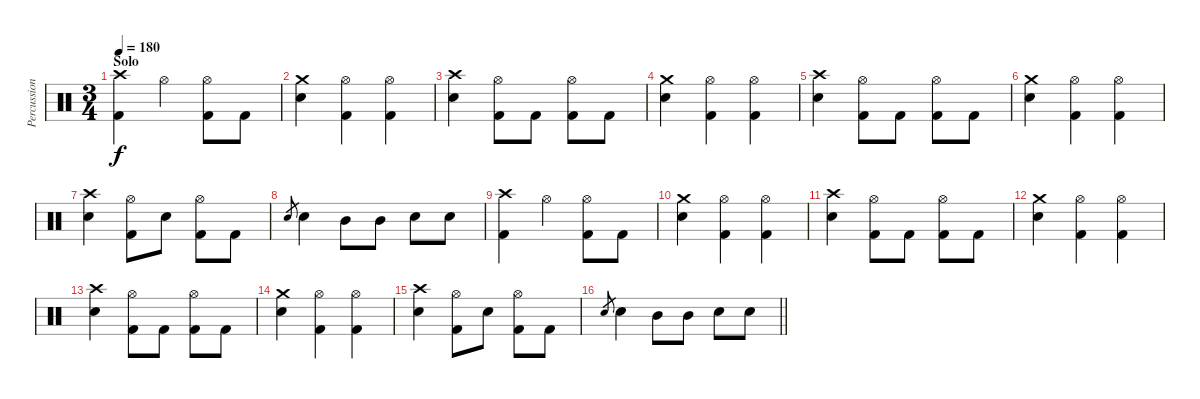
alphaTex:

\track ("Percussions" "Percussion") {instrument percussion}
\staff {score}
\articulation defaults
\ts (3 4)
\section ("" "Solo")
\tempo 180
\clef neutral
\ks c
("Crash high (hit)" "Kick (hit) 2").4{dy f} "Hi-Hat (open)".4 ("Hi-Hat (open)" "Kick (hit) 2").8 "Kick (hit) 2".8 |
("Crash medium (hit)" "Snare (hit) 2").4 ("Hi-Hat (open)" "Kick (hit) 2").4 ("Hi-Hat (open)" "Kick (hit) 2").4 |
("Crash high (hit)" "Snare (hit) 2").4 ("Hi-Hat (open)" "Kick (hit) 2").8 "Kick (hit) 2".8 ("Hi-Hat (open)" "Kick (hit) 2").8 "Kick (hit) 2".8 |
("Crash medium (hit)" "Snare (hit) 2").4 ("Hi-Hat (open)" "Kick (hit) 2").4 ("Hi-Hat (open)" "Kick (hit) 2").4 |
("Crash high (hit)" "Snare (hit) 2").4 ("Hi-Hat (open)" "Kick (hit) 2").8 "Kick (hit) 2".8 ("Hi-Hat (open)" "Kick (hit) 2").8 "Kick (hit) 2".8 |
("Crash medium (hit)" "Snare (hit) 2").4 ("Hi-Hat (open)" "Kick (hit) 2").4 ("Hi-Hat (open)" "Kick (hit) 2").4 |
("Crash high (hit)" "Snare (hit) 2").4 ("Hi-Hat (open)" "Kick (hit) 2").8 "Snare (hit) 2".8 ("Hi-Hat (open)" "Kick (hit) 2").8 "Kick (hit) 2".8 |
"Snare (hit) 2".8{gr} "Snare (hit) 2".4 "Mid Tom (hit)".8 "Mid Tom (hit)".8 "Snare (hit) 2".8 "Snare (hit) 2".8 |
("Crash high (hit)" "Kick (hit) 2").4 "Hi-Hat (open)".4 ("Hi-Hat (open)" "Kick (hit) 2").8 "Kick (hit) 2".8 |
("Crash medium (hit)" "Snare (hit) 2").4 ("Hi-Hat (open)" "Kick (hit) 2").4 ("Hi-Hat (open)" "Kick (hit) 2").4 |
("Crash high (hit)" "Snare (hit) 2").4 ("Hi-Hat (open)" "Kick (hit) 2").8 "Kick (hit) 2".8 ("Hi-Hat (open)" "Kick (hit) 2").8 "Kick (hit) 2".8 |
("Crash medium (hit)" "Snare (hit) 2").4 ("Hi-Hat (open)" "Kick (hit) 2").4 ("Hi-Hat (open)" "Kick (hit) 2").4 |
("Crash high (hit)" "Snare (hit) 2").4 ("Hi-Hat (open)" "Kick (hit) 2").8 "Kick (hit) 2".8 ("Hi-Hat (open)" "Kick (hit) 2").8 "Kick (hit) 2".8 |
("Crash medium (hit)" "Snare (hit) 2").4 ("Hi-Hat (open)" "Kick (hit) 2").4 ("Hi-Hat (open)" "Kick (hit) 2").4 |
("Crash high (hit)" "Snare (hit) 2").4 ("Hi-Hat (open)" "Kick (hit) 2").8 "Snare (hit) 2".8 ("Hi-Hat (open)" "Kick (hit) 2").8 "Kick (hit) 2".8 |
\barLineRight lightlight "Snare (hit) 2".8{gr} "Snare (hit) 2".4 "Mid Tom (hit)".8 "Mid Tom (hit)".8 "Snare (hit) 2".8 "Snare (hit) 2".8
